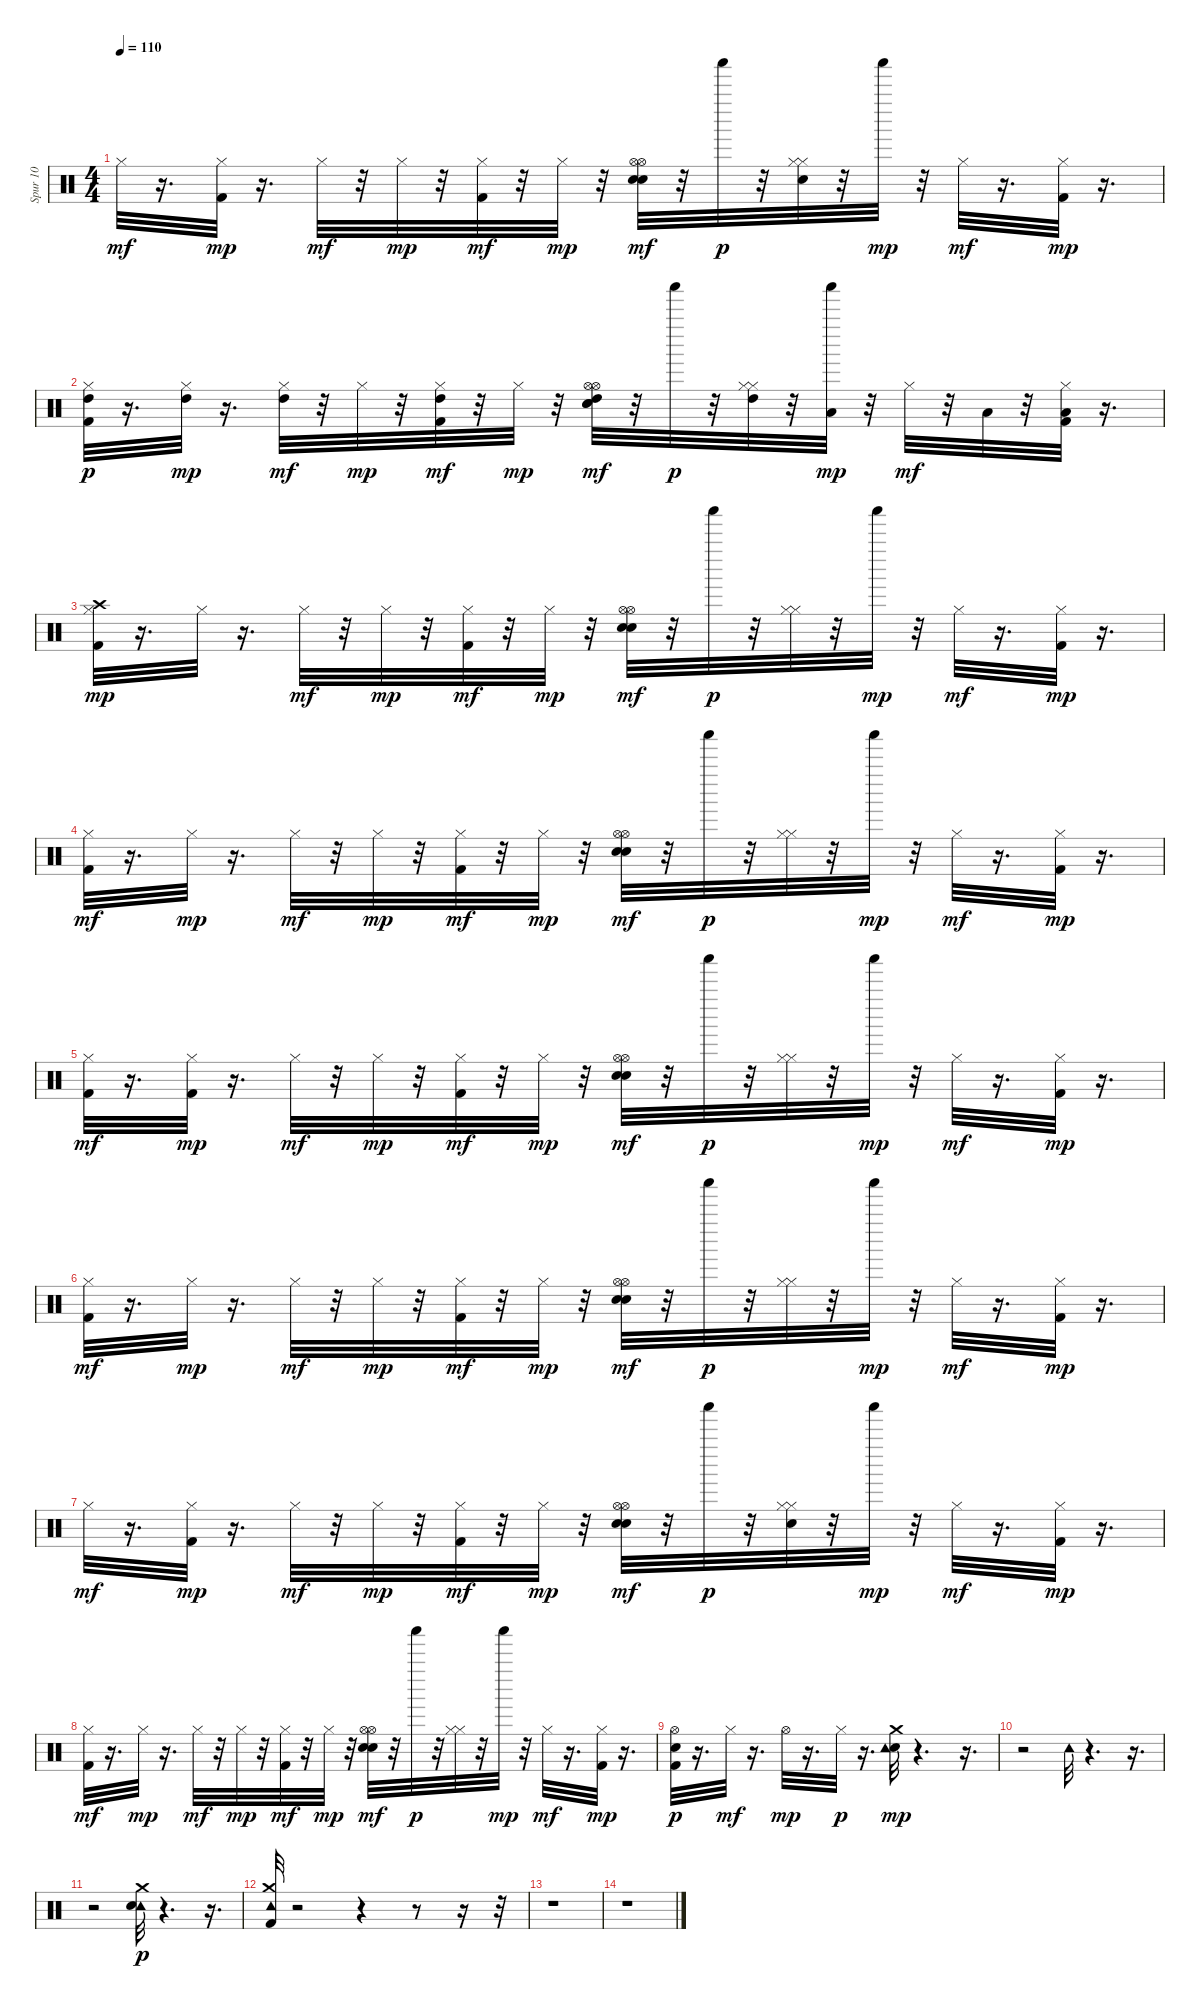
\track ("Spur 10" "Spur 10") {instrument percussion}
\staff {score}
\articulation defaults
\ts (4 4)
\tempo 110
\clef neutral
\ks c "Hi-Hat (closed)".32{dy mf}
r.16{d} ("Kick (hit) 2" "Hi-Hat (closed)").32{dy mp} r.16{d} "Hi-Hat (closed)".32{dy mf} r.32 "Hi-Hat (closed)".32{dy mp} r.32 ("Kick (hit) 2" "Hi-Hat (closed)").32{dy mf} r.32 "Hi-Hat (closed)".32{dy mp} r.32 ("Hi-Hat (open)" "Snare (hit) 2" "Electric Snare (hit)" "Hi-Hat (open)").32{dy mf} r.32 "Shaker (hit)".32{dy p} r.32 ("Snare (hit) 2" "Hi-Hat (closed)" "Hi-Hat (closed)").32 r.32 "Shaker (hit)".32{dy mp} r.32 "Hi-Hat (closed)".32{dy mf} r.16{d} ("Kick (hit) 2" "Hi-Hat (closed)").32{dy mp} r.16{d} |
("Kick (hit) 2" "Hi-Hat (closed)" "High Tom (hit)").32{dy p} r.16{d} ("Hi-Hat (closed)" "High Tom (hit)").32{dy mp} r.16{d} ("Hi-Hat (closed)" "High Tom (hit)").32{dy mf} r.32 "Hi-Hat (closed)".32{dy mp} r.32 ("Kick (hit) 2" "Hi-Hat (closed)" "High Tom (hit)").32{dy mf} r.32 "Hi-Hat (closed)".32{dy mp} r.32 ("Hi-Hat (open)" "Snare (hit) 2" "Electric Snare (hit)" "Hi-Hat (open)" "High Tom (hit)").32{dy mf} r.32 "Shaker (hit)".32{dy p} r.32 ("Hi-Hat (closed)" "Hi-Hat (closed)" "High Tom (hit)").32 r.32 ("Low Tom (hit)" "Shaker (hit)").32{dy mp} r.32 "Hi-Hat (closed)".32{dy mf} r.32 "Low Floor Tom (hit)".32 r.32 ("Kick (hit) 2" "Hi-Hat (closed)" "Low Floor Tom (hit)").32 r.16{d} |
("Kick (hit) 2" "Hi-Hat (closed)" "Crash high (hit)").32{dy mp} r.16{d} "Hi-Hat (closed)".32 r.16{d} "Hi-Hat (closed)".32{dy mf} r.32 "Hi-Hat (closed)".32{dy mp} r.32 ("Kick (hit) 2" "Hi-Hat (closed)").32{dy mf} r.32 "Hi-Hat (closed)".32{dy mp} r.32 ("Hi-Hat (open)" "Snare (hit) 2" "Electric Snare (hit)" "Hi-Hat (open)").32{dy mf} r.32 "Shaker (hit)".32{dy p} r.32 ("Hi-Hat (closed)" "Hi-Hat (closed)").32 r.32 "Shaker (hit)".32{dy mp} r.32 "Hi-Hat (closed)".32{dy mf} r.16{d} ("Kick (hit) 2" "Hi-Hat (closed)").32{dy mp} r.16{d} |
("Kick (hit) 2" "Hi-Hat (closed)").32{dy mf} r.16{d} "Hi-Hat (closed)".32{dy mp} r.16{d} "Hi-Hat (closed)".32{dy mf} r.32 "Hi-Hat (closed)".32{dy mp} r.32 ("Kick (hit) 2" "Hi-Hat (closed)").32{dy mf} r.32 "Hi-Hat (closed)".32{dy mp} r.32 ("Hi-Hat (open)" "Snare (hit) 2" "Electric Snare (hit)" "Hi-Hat (open)").32{dy mf} r.32 "Shaker (hit)".32{dy p} r.32 ("Hi-Hat (closed)" "Hi-Hat (closed)").32 r.32 "Shaker (hit)".32{dy mp} r.32 "Hi-Hat (closed)".32{dy mf} r.16{d} ("Kick (hit) 2" "Hi-Hat (closed)").32{dy mp} r.16{d} |
("Kick (hit) 2" "Hi-Hat (closed)").32{dy mf} r.16{d} ("Kick (hit) 2" "Hi-Hat (closed)").32{dy mp} r.16{d} "Hi-Hat (closed)".32{dy mf} r.32 "Hi-Hat (closed)".32{dy mp} r.32 ("Kick (hit) 2" "Hi-Hat (closed)").32{dy mf} r.32 "Hi-Hat (closed)".32{dy mp} r.32 ("Hi-Hat (open)" "Snare (hit) 2" "Electric Snare (hit)" "Hi-Hat (open)").32{dy mf} r.32 "Shaker (hit)".32{dy p} r.32 ("Hi-Hat (closed)" "Hi-Hat (closed)").32 r.32 "Shaker (hit)".32{dy mp} r.32 "Hi-Hat (closed)".32{dy mf} r.16{d} ("Kick (hit) 2" "Hi-Hat (closed)").32{dy mp} r.16{d} |
("Kick (hit) 2" "Hi-Hat (closed)").32{dy mf} r.16{d} "Hi-Hat (closed)".32{dy mp} r.16{d} "Hi-Hat (closed)".32{dy mf} r.32 "Hi-Hat (closed)".32{dy mp} r.32 ("Kick (hit) 2" "Hi-Hat (closed)").32{dy mf} r.32 "Hi-Hat (closed)".32{dy mp} r.32 ("Hi-Hat (open)" "Snare (hit) 2" "Electric Snare (hit)" "Hi-Hat (open)").32{dy mf} r.32 "Shaker (hit)".32{dy p} r.32 ("Hi-Hat (closed)" "Hi-Hat (closed)").32 r.32 "Shaker (hit)".32{dy mp} r.32 "Hi-Hat (closed)".32{dy mf} r.16{d} ("Kick (hit) 2" "Hi-Hat (closed)").32{dy mp} r.16{d} |
"Hi-Hat (closed)".32{dy mf} r.16{d} ("Kick (hit) 2" "Hi-Hat (closed)").32{dy mp} r.16{d} "Hi-Hat (closed)".32{dy mf} r.32 "Hi-Hat (closed)".32{dy mp} r.32 ("Kick (hit) 2" "Hi-Hat (closed)").32{dy mf} r.32 "Hi-Hat (closed)".32{dy mp} r.32 ("Hi-Hat (open)" "Snare (hit) 2" "Electric Snare (hit)" "Hi-Hat (open)").32{dy mf} r.32 "Shaker (hit)".32{dy p} r.32 ("Snare (hit) 2" "Hi-Hat (closed)" "Hi-Hat (closed)").32 r.32 "Shaker (hit)".32{dy mp} r.32 "Hi-Hat (closed)".32{dy mf} r.16{d} ("Kick (hit) 2" "Hi-Hat (closed)").32{dy mp} r.16{d} |
("Kick (hit) 2" "Hi-Hat (closed)").32{dy mf} r.16{d} "Hi-Hat (closed)".32{dy mp} r.16{d} "Hi-Hat (closed)".32{dy mf} r.32 "Hi-Hat (closed)".32{dy mp} r.32 ("Kick (hit) 2" "Hi-Hat (closed)").32{dy mf} r.32 "Hi-Hat (closed)".32{dy mp} r.32 ("Hi-Hat (open)" "Snare (hit) 2" "Electric Snare (hit)" "Hi-Hat (open)").32{dy mf} r.32 "Shaker (hit)".32{dy p} r.32 ("Hi-Hat (closed)" "Hi-Hat (closed)").32 r.32 "Shaker (hit)".32{dy mp} r.32 "Hi-Hat (closed)".32{dy mf} r.16{d} ("Kick (hit) 2" "Hi-Hat (closed)").32{dy mp} r.16{d} |
("Kick (hit) 2" "Hi-Hat (open)" "Snare (hit)").32{dy p} r.16{d} "Hi-Hat (closed)".32{dy mf} r.16{d} "Hi-Hat (open)".32{dy mp} r.16{d} "Hi-Hat (closed)".32{dy p} r.16{d} ("Snare (hit) 2" "Crash medium (hit)" "Tambourine (hit)").32{dy mp} r.4{d} r.16{d} |
r.2 "Tambourine (hit)".32 r.4{d} r.16{d} |
r.2 ("Crash medium (hit)" "Tambourine (hit)" "Snare (hit)").32{dy p} r.4{d} r.16{d} |
("Kick (hit) 2" "Crash medium (hit)" "Tambourine (hit)").32 r.2 r.4 r.8 r.16 r.32 |
r.1 |
r.1
